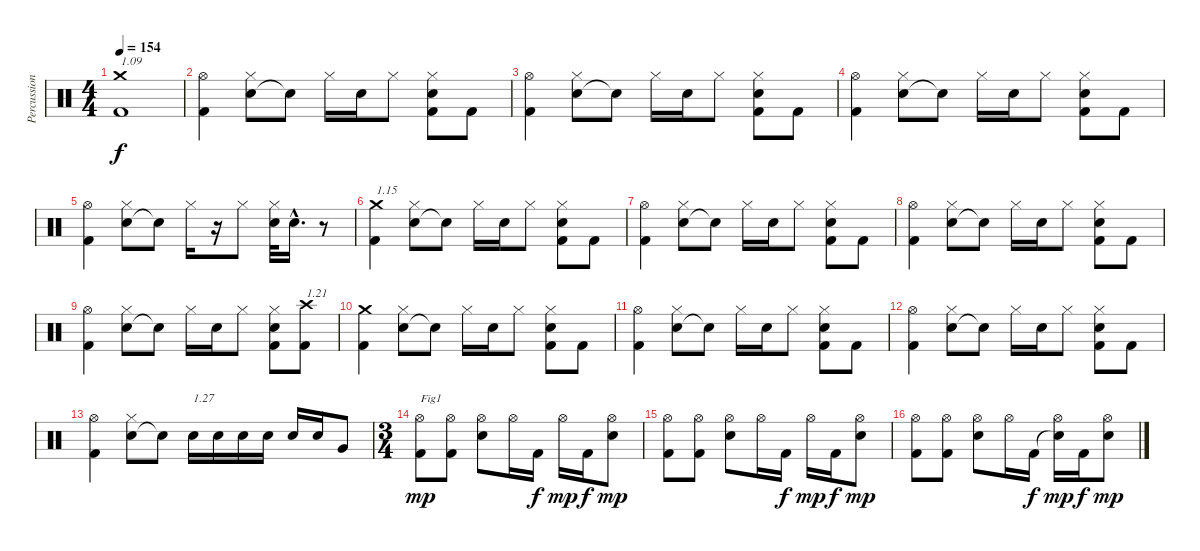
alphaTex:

\track ("Percussions" "Percussion") {instrument percussion}
\staff {score}
\articulation defaults
\ts (4 4)
\tempo 154
\clef neutral
\ks c
("Kick (hit) 2" "Crash medium (hit)").1{txt "1.09" dy f} |
("Kick (hit) 2" "Hi-Hat (open)").4 ("Electric Snare (hit)" "Hi-Hat (closed)").8 "Snare (hit)"{t}.8 "Hi-Hat (closed)".16 "Electric Snare (hit)".16 "Hi-Hat (closed)".8 ("Kick (hit) 2" "Electric Snare (hit)" "Hi-Hat (closed)").8 "Kick (hit) 2".8 |
("Kick (hit) 2" "Hi-Hat (open)").4 ("Electric Snare (hit)" "Hi-Hat (closed)").8 "Snare (hit)"{t}.8 "Hi-Hat (closed)".16 "Electric Snare (hit)".16 "Hi-Hat (closed)".8 ("Kick (hit) 2" "Electric Snare (hit)" "Hi-Hat (closed)").8 "Kick (hit) 2".8 |
("Kick (hit) 2" "Hi-Hat (open)").4 ("Electric Snare (hit)" "Hi-Hat (closed)").8 "Snare (hit)"{t}.8 "Hi-Hat (closed)".16 "Electric Snare (hit)".16 "Hi-Hat (closed)".8 ("Kick (hit) 2" "Electric Snare (hit)" "Hi-Hat (closed)").8 "Kick (hit) 2".8 |
("Kick (hit) 2" "Hi-Hat (open)").4 ("Electric Snare (hit)" "Hi-Hat (closed)").8 "Snare (hit)"{t}.8 "Hi-Hat (closed)".16 r.16 "Hi-Hat (closed)".8 ("Electric Snare (hit)" "Hi-Hat (closed)").32 "Electric Snare (hit)"{hac}.16{d} r.8 |
("Kick (hit) 2" "Crash medium (hit)").4{txt "1.15"} ("Electric Snare (hit)" "Hi-Hat (closed)").8 "Snare (hit)"{t}.8 "Hi-Hat (closed)".16 "Electric Snare (hit)".16 "Hi-Hat (closed)".8 ("Kick (hit) 2" "Electric Snare (hit)" "Hi-Hat (closed)").8 "Kick (hit) 2".8 |
("Kick (hit) 2" "Hi-Hat (open)").4 ("Electric Snare (hit)" "Hi-Hat (closed)").8 "Snare (hit)"{t}.8 "Hi-Hat (closed)".16 "Electric Snare (hit)".16 "Hi-Hat (closed)".8 ("Kick (hit) 2" "Electric Snare (hit)" "Hi-Hat (closed)").8 "Kick (hit) 2".8 |
("Kick (hit) 2" "Hi-Hat (open)").4 ("Electric Snare (hit)" "Hi-Hat (closed)").8 "Snare (hit)"{t}.8 "Hi-Hat (closed)".16 "Electric Snare (hit)".16 "Hi-Hat (closed)".8 ("Kick (hit) 2" "Electric Snare (hit)" "Hi-Hat (closed)").8 "Kick (hit) 2".8 |
("Kick (hit) 2" "Hi-Hat (open)").4 ("Electric Snare (hit)" "Hi-Hat (closed)").8 "Snare (hit)"{t}.8 "Hi-Hat (closed)".16 "Electric Snare (hit)".16 "Hi-Hat (closed)".8 ("Kick (hit) 2" "Electric Snare (hit)" "Hi-Hat (closed)").8 ("Kick (hit) 2" "Crash high (hit)").8{txt "1.21"} |
("Kick (hit) 2" "Crash medium (hit)").4 ("Electric Snare (hit)" "Hi-Hat (closed)").8 "Snare (hit)"{t}.8 "Hi-Hat (closed)".16 "Electric Snare (hit)".16 "Hi-Hat (closed)".8 ("Kick (hit) 2" "Electric Snare (hit)" "Hi-Hat (closed)").8 "Kick (hit) 2".8 |
("Kick (hit) 2" "Hi-Hat (open)").4 ("Electric Snare (hit)" "Hi-Hat (closed)").8 "Snare (hit)"{t}.8 "Hi-Hat (closed)".16 "Electric Snare (hit)".16 "Hi-Hat (closed)".8 ("Kick (hit) 2" "Electric Snare (hit)" "Hi-Hat (closed)").8 "Kick (hit) 2".8 |
("Kick (hit) 2" "Hi-Hat (open)").4 ("Electric Snare (hit)" "Hi-Hat (closed)").8 "Snare (hit)"{t}.8 "Hi-Hat (closed)".16 "Electric Snare (hit)".16 "Hi-Hat (closed)".8 ("Kick (hit) 2" "Electric Snare (hit)" "Hi-Hat (closed)").8 "Kick (hit) 2".8 |
("Kick (hit) 2" "Hi-Hat (open)").4 ("Electric Snare (hit)" "Hi-Hat (closed)").8 "Snare (hit)"{t}.8 "Electric Snare (hit)".16{txt "1.27"} "Electric Snare (hit)".16 "Electric Snare (hit)".16 "Electric Snare (hit)".16 "Electric Snare (hit)".16 "Electric Snare (hit)".16 "Very Low Tom (hit)".8 |
\ts (3 4)
("Kick (hit) 2" "Hi-Hat (open)").8{txt "Fig1" dy mp} ("Kick (hit) 2" "Hi-Hat (open)").8 ("Electric Snare (hit)" "Hi-Hat (open)").8 "Hi-Hat (open)".16 "Kick (hit) 2".16{dy f} "Hi-Hat (open)".16{dy mp} "Kick (hit) 2".16{dy f} ("Electric Snare (hit)" "Hi-Hat (open)").8{dy mp} |
("Kick (hit) 2" "Hi-Hat (open)").8 ("Kick (hit) 2" "Hi-Hat (open)").8 ("Electric Snare (hit)" "Hi-Hat (open)").8 "Hi-Hat (open)".16 "Kick (hit) 2".16{dy f} "Hi-Hat (open)".16{dy mp} "Kick (hit) 2".16{dy f} ("Electric Snare (hit)" "Hi-Hat (open)").8{dy mp} |
("Kick (hit) 2" "Hi-Hat (open)").8 ("Kick (hit) 2" "Hi-Hat (open)").8 ("Electric Snare (hit)" "Hi-Hat (open)").8 "Hi-Hat (open)".16 "Kick (hit) 2".16{dy f} ("Snare (hit)"{t} "Hi-Hat (open)").16{dy mp} "Kick (hit) 2".16{dy f} ("Electric Snare (hit)" "Hi-Hat (open)").8{dy mp}
